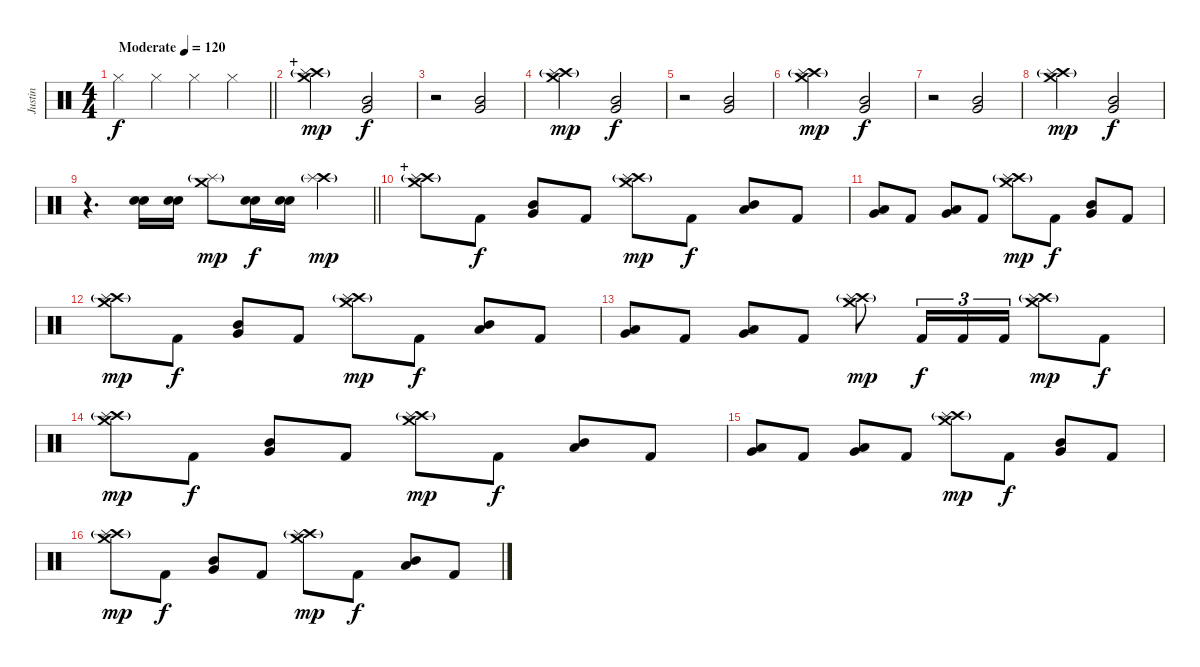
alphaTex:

\track ("Justin" "Justin") {instrument percussion}
\staff {score}
\articulation defaults
\ts (4 4)
\tempo (120 "Moderate")
\clef neutral
\barLineRight lightlight
\ks c "Hi-Hat (closed)".4{dy f} "Hi-Hat (closed)".4 "Hi-Hat (closed)".4 "Hi-Hat (closed)".4
|
\section ("" "+")
("Crash medium (hit)" "Crash high (hit)" "Splash (hit)"{g}).2{dy mp} ("Mid Tom (hit)" "Very Low Tom (hit)").2{dy f} |
r.2 ("Mid Tom (hit)" "Very Low Tom (hit)").2 |
("Crash medium (hit)" "Crash high (hit)" "Splash (hit)"{g}).2{dy mp} ("Mid Tom (hit)" "Very Low Tom (hit)").2{dy f} |
r.2 ("Mid Tom (hit)" "Very Low Tom (hit)").2 |
("Crash medium (hit)" "Crash high (hit)" "Splash (hit)"{g}).2{dy mp} ("Mid Tom (hit)" "Very Low Tom (hit)").2{dy f} |
r.2 ("Mid Tom (hit)" "Very Low Tom (hit)").2 |
("Crash medium (hit)" "Crash high (hit)" "Splash (hit)"{g}).2{dy mp} ("Mid Tom (hit)" "Very Low Tom (hit)").2{dy f} |
\barLineRight lightlight
r.4{d} ("Electric Snare (hit)" "Snare (hit) 2").16 ("Electric Snare (hit)" "Snare (hit) 2").16 ("Crash medium (hit)" "Splash (hit)"{g}).8{dy mp} ("Electric Snare (hit)" "Snare (hit) 2").16{dy f} ("Electric Snare (hit)" "Snare (hit) 2").16 ("Crash high (hit)" "Splash (hit)"{g}).4{dy mp} |
\section ("" "+")
("Crash medium (hit)" "Crash high (hit)" "Splash (hit)"{g}).8 "Kick (hit) 2".8{dy f} ("Mid Tom (hit)" "Very Low Tom (hit)").8 "Kick (hit) 2".8 ("Crash medium (hit)" "Crash high (hit)" "Splash (hit)"{g}).8{dy mp} "Kick (hit) 2".8{dy f} ("Mid Tom (hit)" "Low Tom (hit)").8 "Kick (hit) 2".8 |
("Low Tom (hit)" "Very Low Tom (hit)").8 "Kick (hit) 2".8 ("Very Low Tom (hit)" "Low Floor Tom (hit)").8 "Kick (hit) 2".8 ("Crash medium (hit)" "Crash high (hit)" "Splash (hit)"{g}).8{dy mp} "Kick (hit) 2".8{dy f} ("Mid Tom (hit)" "Very Low Tom (hit)").8 "Kick (hit) 2".8 |
("Crash medium (hit)" "Crash high (hit)" "Splash (hit)"{g}).8{dy mp} "Kick (hit) 2".8{dy f} ("Mid Tom (hit)" "Very Low Tom (hit)").8 "Kick (hit) 2".8 ("Crash medium (hit)" "Crash high (hit)" "Splash (hit)"{g}).8{dy mp} "Kick (hit) 2".8{dy f} ("Mid Tom (hit)" "Low Tom (hit)").8 "Kick (hit) 2".8 |
("Low Tom (hit)" "Very Low Tom (hit)").8 "Kick (hit) 2".8 ("Very Low Tom (hit)" "Low Floor Tom (hit)").8 "Kick (hit) 2".8 ("Crash medium (hit)" "Crash high (hit)" "Splash (hit)"{g}).8{dy mp} "Kick (hit) 2".16{tu (3 2) dy f} "Kick (hit) 2".16{tu (3 2)} "Kick (hit) 2".16{tu (3 2)} ("Crash medium (hit)" "Crash high (hit)" "Splash (hit)"{g}).8{dy mp} "Kick (hit) 2".8{dy f} |
("Crash medium (hit)" "Crash high (hit)" "Splash (hit)"{g}).8{dy mp} "Kick (hit) 2".8{dy f} ("Mid Tom (hit)" "Very Low Tom (hit)").8 "Kick (hit) 2".8 ("Crash medium (hit)" "Crash high (hit)" "Splash (hit)"{g}).8{dy mp} "Kick (hit) 2".8{dy f} ("Mid Tom (hit)" "Low Tom (hit)").8 "Kick (hit) 2".8 |
("Low Tom (hit)" "Very Low Tom (hit)").8 "Kick (hit) 2".8 ("Very Low Tom (hit)" "Low Floor Tom (hit)").8 "Kick (hit) 2".8 ("Crash medium (hit)" "Crash high (hit)" "Splash (hit)"{g}).8{dy mp} "Kick (hit) 2".8{dy f} ("Mid Tom (hit)" "Very Low Tom (hit)").8 "Kick (hit) 2".8 |
("Crash medium (hit)" "Crash high (hit)" "Splash (hit)"{g}).8{dy mp} "Kick (hit) 2".8{dy f} ("Mid Tom (hit)" "Very Low Tom (hit)").8 "Kick (hit) 2".8 ("Crash medium (hit)" "Crash high (hit)" "Splash (hit)"{g}).8{dy mp} "Kick (hit) 2".8{dy f} ("Mid Tom (hit)" "Low Tom (hit)").8 "Kick (hit) 2".8
